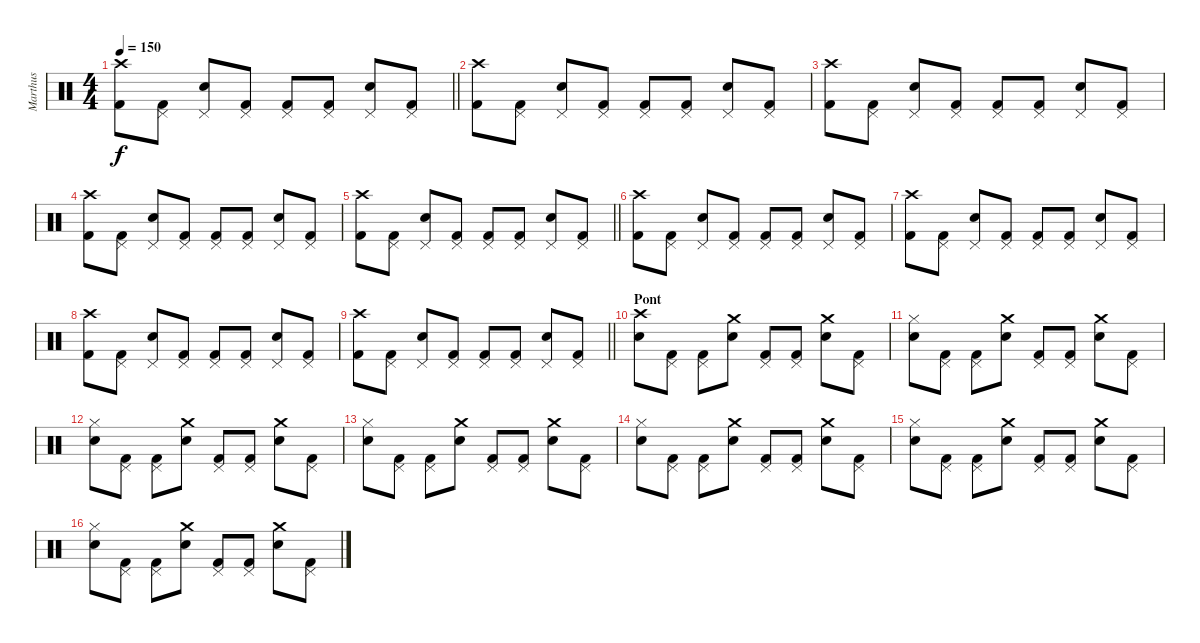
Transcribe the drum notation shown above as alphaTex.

\track ("Marthus" "Marthus") {instrument percussion}
\staff {score}
\articulation defaults
\ts (4 4)
\tempo 150
\clef neutral
\barLineRight lightlight
\ks c
("Kick (hit) 2" "Crash high (hit)").8{dy f} ("Kick (hit) 2" "Pedal Hi-Hat (hit)").8 ("Electric Snare (hit)" "Pedal Hi-Hat (hit)").8 ("Kick (hit) 2" "Pedal Hi-Hat (hit)").8 ("Kick (hit) 2" "Pedal Hi-Hat (hit)").8 ("Kick (hit) 2" "Pedal Hi-Hat (hit)").8 ("Electric Snare (hit)" "Pedal Hi-Hat (hit)").8 ("Kick (hit) 2" "Pedal Hi-Hat (hit)").8 |
("Kick (hit) 2" "Crash high (hit)").8 ("Kick (hit) 2" "Pedal Hi-Hat (hit)").8 ("Electric Snare (hit)" "Pedal Hi-Hat (hit)").8 ("Kick (hit) 2" "Pedal Hi-Hat (hit)").8 ("Kick (hit) 2" "Pedal Hi-Hat (hit)").8 ("Kick (hit) 2" "Pedal Hi-Hat (hit)").8 ("Electric Snare (hit)" "Pedal Hi-Hat (hit)").8 ("Kick (hit) 2" "Pedal Hi-Hat (hit)").8 |
("Kick (hit) 2" "Crash high (hit)").8 ("Kick (hit) 2" "Pedal Hi-Hat (hit)").8 ("Electric Snare (hit)" "Pedal Hi-Hat (hit)").8 ("Kick (hit) 2" "Pedal Hi-Hat (hit)").8 ("Kick (hit) 2" "Pedal Hi-Hat (hit)").8 ("Kick (hit) 2" "Pedal Hi-Hat (hit)").8 ("Electric Snare (hit)" "Pedal Hi-Hat (hit)").8 ("Kick (hit) 2" "Pedal Hi-Hat (hit)").8 |
("Kick (hit) 2" "Crash high (hit)").8 ("Kick (hit) 2" "Pedal Hi-Hat (hit)").8 ("Electric Snare (hit)" "Pedal Hi-Hat (hit)").8 ("Kick (hit) 2" "Pedal Hi-Hat (hit)").8 ("Kick (hit) 2" "Pedal Hi-Hat (hit)").8 ("Kick (hit) 2" "Pedal Hi-Hat (hit)").8 ("Electric Snare (hit)" "Pedal Hi-Hat (hit)").8 ("Kick (hit) 2" "Pedal Hi-Hat (hit)").8 |
\barLineRight lightlight
("Kick (hit) 2" "Crash high (hit)").8 ("Kick (hit) 2" "Pedal Hi-Hat (hit)").8 ("Electric Snare (hit)" "Pedal Hi-Hat (hit)").8 ("Kick (hit) 2" "Pedal Hi-Hat (hit)").8 ("Kick (hit) 2" "Pedal Hi-Hat (hit)").8 ("Kick (hit) 2" "Pedal Hi-Hat (hit)").8 ("Electric Snare (hit)" "Pedal Hi-Hat (hit)").8 ("Kick (hit) 2" "Pedal Hi-Hat (hit)").8 |
("Kick (hit) 2" "Crash high (hit)").8 ("Kick (hit) 2" "Pedal Hi-Hat (hit)").8 ("Electric Snare (hit)" "Pedal Hi-Hat (hit)").8 ("Kick (hit) 2" "Pedal Hi-Hat (hit)").8 ("Kick (hit) 2" "Pedal Hi-Hat (hit)").8 ("Kick (hit) 2" "Pedal Hi-Hat (hit)").8 ("Electric Snare (hit)" "Pedal Hi-Hat (hit)").8 ("Kick (hit) 2" "Pedal Hi-Hat (hit)").8 |
("Kick (hit) 2" "Crash high (hit)").8 ("Kick (hit) 2" "Pedal Hi-Hat (hit)").8 ("Electric Snare (hit)" "Pedal Hi-Hat (hit)").8 ("Kick (hit) 2" "Pedal Hi-Hat (hit)").8 ("Kick (hit) 2" "Pedal Hi-Hat (hit)").8 ("Kick (hit) 2" "Pedal Hi-Hat (hit)").8 ("Electric Snare (hit)" "Pedal Hi-Hat (hit)").8 ("Kick (hit) 2" "Pedal Hi-Hat (hit)").8 |
("Kick (hit) 2" "Crash high (hit)").8 ("Kick (hit) 2" "Pedal Hi-Hat (hit)").8 ("Electric Snare (hit)" "Pedal Hi-Hat (hit)").8 ("Kick (hit) 2" "Pedal Hi-Hat (hit)").8 ("Kick (hit) 2" "Pedal Hi-Hat (hit)").8 ("Kick (hit) 2" "Pedal Hi-Hat (hit)").8 ("Electric Snare (hit)" "Pedal Hi-Hat (hit)").8 ("Kick (hit) 2" "Pedal Hi-Hat (hit)").8 |
\barLineRight lightlight
("Kick (hit) 2" "Crash high (hit)").8 ("Kick (hit) 2" "Pedal Hi-Hat (hit)").8 ("Electric Snare (hit)" "Pedal Hi-Hat (hit)").8 ("Kick (hit) 2" "Pedal Hi-Hat (hit)").8 ("Kick (hit) 2" "Pedal Hi-Hat (hit)").8 ("Kick (hit) 2" "Pedal Hi-Hat (hit)").8 ("Electric Snare (hit)" "Pedal Hi-Hat (hit)").8 ("Kick (hit) 2" "Pedal Hi-Hat (hit)").8 |
\section ("" "Pont")
("Electric Snare (hit)" "Crash high (hit)").8 ("Kick (hit) 2" "Pedal Hi-Hat (hit)").8 ("Kick (hit) 2" "Pedal Hi-Hat (hit)").8 ("Electric Snare (hit)" "Crash medium (hit)").8 ("Kick (hit) 2" "Pedal Hi-Hat (hit)").8 ("Kick (hit) 2" "Pedal Hi-Hat (hit)").8 ("Electric Snare (hit)" "Crash medium (hit)").8 ("Kick (hit) 2" "Pedal Hi-Hat (hit)").8 |
("Electric Snare (hit)" "Hi-Hat (closed)").8 ("Kick (hit) 2" "Pedal Hi-Hat (hit)").8 ("Kick (hit) 2" "Pedal Hi-Hat (hit)").8 ("Electric Snare (hit)" "Crash medium (hit)").8 ("Kick (hit) 2" "Pedal Hi-Hat (hit)").8 ("Kick (hit) 2" "Pedal Hi-Hat (hit)").8 ("Electric Snare (hit)" "Crash medium (hit)").8 ("Kick (hit) 2" "Pedal Hi-Hat (hit)").8 |
("Electric Snare (hit)" "Hi-Hat (closed)").8 ("Kick (hit) 2" "Pedal Hi-Hat (hit)").8 ("Kick (hit) 2" "Pedal Hi-Hat (hit)").8 ("Electric Snare (hit)" "Crash medium (hit)").8 ("Kick (hit) 2" "Pedal Hi-Hat (hit)").8 ("Kick (hit) 2" "Pedal Hi-Hat (hit)").8 ("Electric Snare (hit)" "Crash medium (hit)").8 ("Kick (hit) 2" "Pedal Hi-Hat (hit)").8 |
("Electric Snare (hit)" "Hi-Hat (closed)").8 ("Kick (hit) 2" "Pedal Hi-Hat (hit)").8 ("Kick (hit) 2" "Pedal Hi-Hat (hit)").8 ("Electric Snare (hit)" "Crash medium (hit)").8 ("Kick (hit) 2" "Pedal Hi-Hat (hit)").8 ("Kick (hit) 2" "Pedal Hi-Hat (hit)").8 ("Electric Snare (hit)" "Crash medium (hit)").8 ("Kick (hit) 2" "Pedal Hi-Hat (hit)").8 |
("Electric Snare (hit)" "Hi-Hat (closed)").8 ("Kick (hit) 2" "Pedal Hi-Hat (hit)").8 ("Kick (hit) 2" "Pedal Hi-Hat (hit)").8 ("Electric Snare (hit)" "Crash medium (hit)").8 ("Kick (hit) 2" "Pedal Hi-Hat (hit)").8 ("Kick (hit) 2" "Pedal Hi-Hat (hit)").8 ("Electric Snare (hit)" "Crash medium (hit)").8 ("Kick (hit) 2" "Pedal Hi-Hat (hit)").8 |
("Electric Snare (hit)" "Hi-Hat (closed)").8 ("Kick (hit) 2" "Pedal Hi-Hat (hit)").8 ("Kick (hit) 2" "Pedal Hi-Hat (hit)").8 ("Electric Snare (hit)" "Crash medium (hit)").8 ("Kick (hit) 2" "Pedal Hi-Hat (hit)").8 ("Kick (hit) 2" "Pedal Hi-Hat (hit)").8 ("Electric Snare (hit)" "Crash medium (hit)").8 ("Kick (hit) 2" "Pedal Hi-Hat (hit)").8 |
("Electric Snare (hit)" "Hi-Hat (closed)").8 ("Kick (hit) 2" "Pedal Hi-Hat (hit)").8 ("Kick (hit) 2" "Pedal Hi-Hat (hit)").8 ("Electric Snare (hit)" "Crash medium (hit)").8 ("Kick (hit) 2" "Pedal Hi-Hat (hit)").8 ("Kick (hit) 2" "Pedal Hi-Hat (hit)").8 ("Electric Snare (hit)" "Crash medium (hit)").8 ("Kick (hit) 2" "Pedal Hi-Hat (hit)").8
